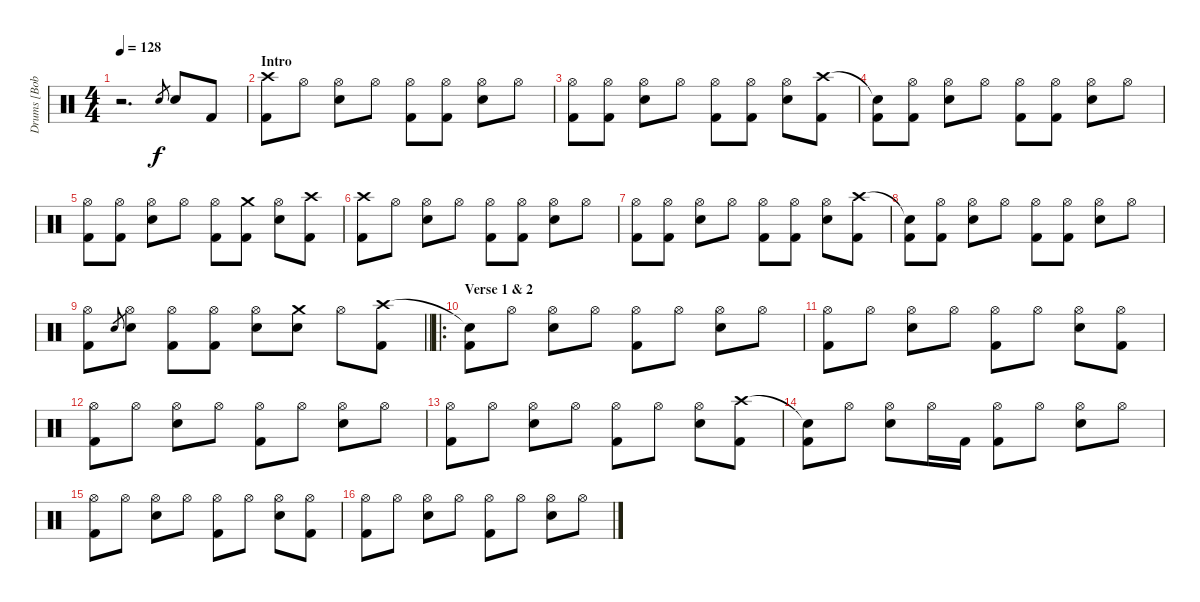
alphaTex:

\track ("Drums [Bobby Blotzer]" "Drums [Bob") {instrument percussion}
\staff {score}
\articulation defaults
\ts (4 4)
\tempo 128
\clef neutral
\ks c
r.2{d dy f} "Electric Snare (hit)".8{gr} "Electric Snare (hit)".8 "Kick (hit) 2".8 |
\section ("" "Intro")
("Crash high (hit)" "Kick (hit) 2").8 "Hi-Hat (open)".8 ("Hi-Hat (open)" "Electric Snare (hit)").8 "Hi-Hat (open)".8 ("Hi-Hat (open)" "Kick (hit) 2").8 ("Hi-Hat (open)" "Kick (hit) 2").8 ("Hi-Hat (open)" "Electric Snare (hit)").8 "Hi-Hat (open)".8 |
("Hi-Hat (open)" "Kick (hit) 2").8 ("Hi-Hat (open)" "Kick (hit) 2").8 ("Hi-Hat (open)" "Electric Snare (hit)").8 "Hi-Hat (open)".8 ("Hi-Hat (open)" "Kick (hit) 2").8 ("Hi-Hat (open)" "Kick (hit) 2").8 ("Hi-Hat (open)" "Electric Snare (hit)").8 ("Crash high (hit)" "Kick (hit) 2").8 |
("Snare (hit)"{t} "Kick (hit) 2").8 ("Hi-Hat (open)" "Kick (hit) 2").8 ("Hi-Hat (open)" "Electric Snare (hit)").8 "Hi-Hat (open)".8 ("Hi-Hat (open)" "Kick (hit) 2").8 ("Hi-Hat (open)" "Kick (hit) 2").8 ("Hi-Hat (open)" "Electric Snare (hit)").8 "Hi-Hat (open)".8 |
("Hi-Hat (open)" "Kick (hit) 2").8 ("Hi-Hat (open)" "Kick (hit) 2").8 ("Hi-Hat (open)" "Electric Snare (hit)").8 "Hi-Hat (open)".8 ("Hi-Hat (open)" "Kick (hit) 2").8 ("Crash medium (hit)" "Kick (hit) 2").8 ("Hi-Hat (open)" "Electric Snare (hit)").8 ("Crash high (hit)" "Kick (hit) 2").8 |
("Crash high (hit)" "Kick (hit) 2").8 "Hi-Hat (open)".8 ("Hi-Hat (open)" "Electric Snare (hit)").8 "Hi-Hat (open)".8 ("Hi-Hat (open)" "Kick (hit) 2").8 ("Hi-Hat (open)" "Kick (hit) 2").8 ("Hi-Hat (open)" "Electric Snare (hit)").8 "Hi-Hat (open)".8 |
("Hi-Hat (open)" "Kick (hit) 2").8 ("Hi-Hat (open)" "Kick (hit) 2").8 ("Hi-Hat (open)" "Electric Snare (hit)").8 "Hi-Hat (open)".8 ("Hi-Hat (open)" "Kick (hit) 2").8 ("Hi-Hat (open)" "Kick (hit) 2").8 ("Hi-Hat (open)" "Electric Snare (hit)").8 ("Crash high (hit)" "Kick (hit) 2").8 |
("Snare (hit)"{t} "Kick (hit) 2").8 ("Hi-Hat (open)" "Kick (hit) 2").8 ("Hi-Hat (open)" "Electric Snare (hit)").8 "Hi-Hat (open)".8 ("Hi-Hat (open)" "Kick (hit) 2").8 ("Hi-Hat (open)" "Kick (hit) 2").8 ("Hi-Hat (open)" "Electric Snare (hit)").8 "Hi-Hat (open)".8 |
\barLineRight lightlight
("Hi-Hat (open)" "Kick (hit) 2").8 "Electric Snare (hit)".8{gr} ("Hi-Hat (open)" "Electric Snare (hit)").8 ("Hi-Hat (open)" "Kick (hit) 2").8 ("Hi-Hat (open)" "Kick (hit) 2").8 ("Hi-Hat (open)" "Electric Snare (hit)").8 ("Crash medium (hit)" "Electric Snare (hit)").8 "Hi-Hat (open)".8 ("Crash high (hit)" "Kick (hit) 2").8 |
\ro
\section ("" "Verse 1 & 2")
("Snare (hit)"{t} "Kick (hit) 2").8 "Hi-Hat (open)".8 ("Hi-Hat (open)" "Electric Snare (hit)").8 "Hi-Hat (open)".8 ("Hi-Hat (open)" "Kick (hit) 2").8 "Hi-Hat (open)".8 ("Hi-Hat (open)" "Electric Snare (hit)").8 "Hi-Hat (open)".8 |
("Hi-Hat (open)" "Kick (hit) 2").8 "Hi-Hat (open)".8 ("Hi-Hat (open)" "Electric Snare (hit)").8 "Hi-Hat (open)".8 ("Hi-Hat (open)" "Kick (hit) 2").8 "Hi-Hat (open)".8 ("Hi-Hat (open)" "Electric Snare (hit)").8 ("Hi-Hat (open)" "Kick (hit) 2").8 |
("Hi-Hat (open)" "Kick (hit) 2").8 "Hi-Hat (open)".8 ("Hi-Hat (open)" "Electric Snare (hit)").8 "Hi-Hat (open)".8 ("Hi-Hat (open)" "Kick (hit) 2").8 "Hi-Hat (open)".8 ("Hi-Hat (open)" "Electric Snare (hit)").8 "Hi-Hat (open)".8 |
("Hi-Hat (open)" "Kick (hit) 2").8 "Hi-Hat (open)".8 ("Hi-Hat (open)" "Electric Snare (hit)").8 "Hi-Hat (open)".8 ("Hi-Hat (open)" "Kick (hit) 2").8 "Hi-Hat (open)".8 ("Hi-Hat (open)" "Electric Snare (hit)").8 ("Crash high (hit)" "Kick (hit) 2").8 |
("Snare (hit)"{t} "Kick (hit) 2").8 "Hi-Hat (open)".8 ("Hi-Hat (open)" "Electric Snare (hit)").8 "Hi-Hat (open)".16 "Kick (hit) 2".16 ("Hi-Hat (open)" "Kick (hit) 2").8 "Hi-Hat (open)".8 ("Hi-Hat (open)" "Electric Snare (hit)").8 "Hi-Hat (open)".8 |
("Hi-Hat (open)" "Kick (hit) 2").8 "Hi-Hat (open)".8 ("Hi-Hat (open)" "Electric Snare (hit)").8 "Hi-Hat (open)".8 ("Hi-Hat (open)" "Kick (hit) 2").8 "Hi-Hat (open)".8 ("Hi-Hat (open)" "Electric Snare (hit)").8 ("Hi-Hat (open)" "Kick (hit) 2").8 |
("Hi-Hat (open)" "Kick (hit) 2").8 "Hi-Hat (open)".8 ("Hi-Hat (open)" "Electric Snare (hit)").8 "Hi-Hat (open)".8 ("Hi-Hat (open)" "Kick (hit) 2").8 "Hi-Hat (open)".8 ("Hi-Hat (open)" "Electric Snare (hit)").8 "Hi-Hat (open)".8
